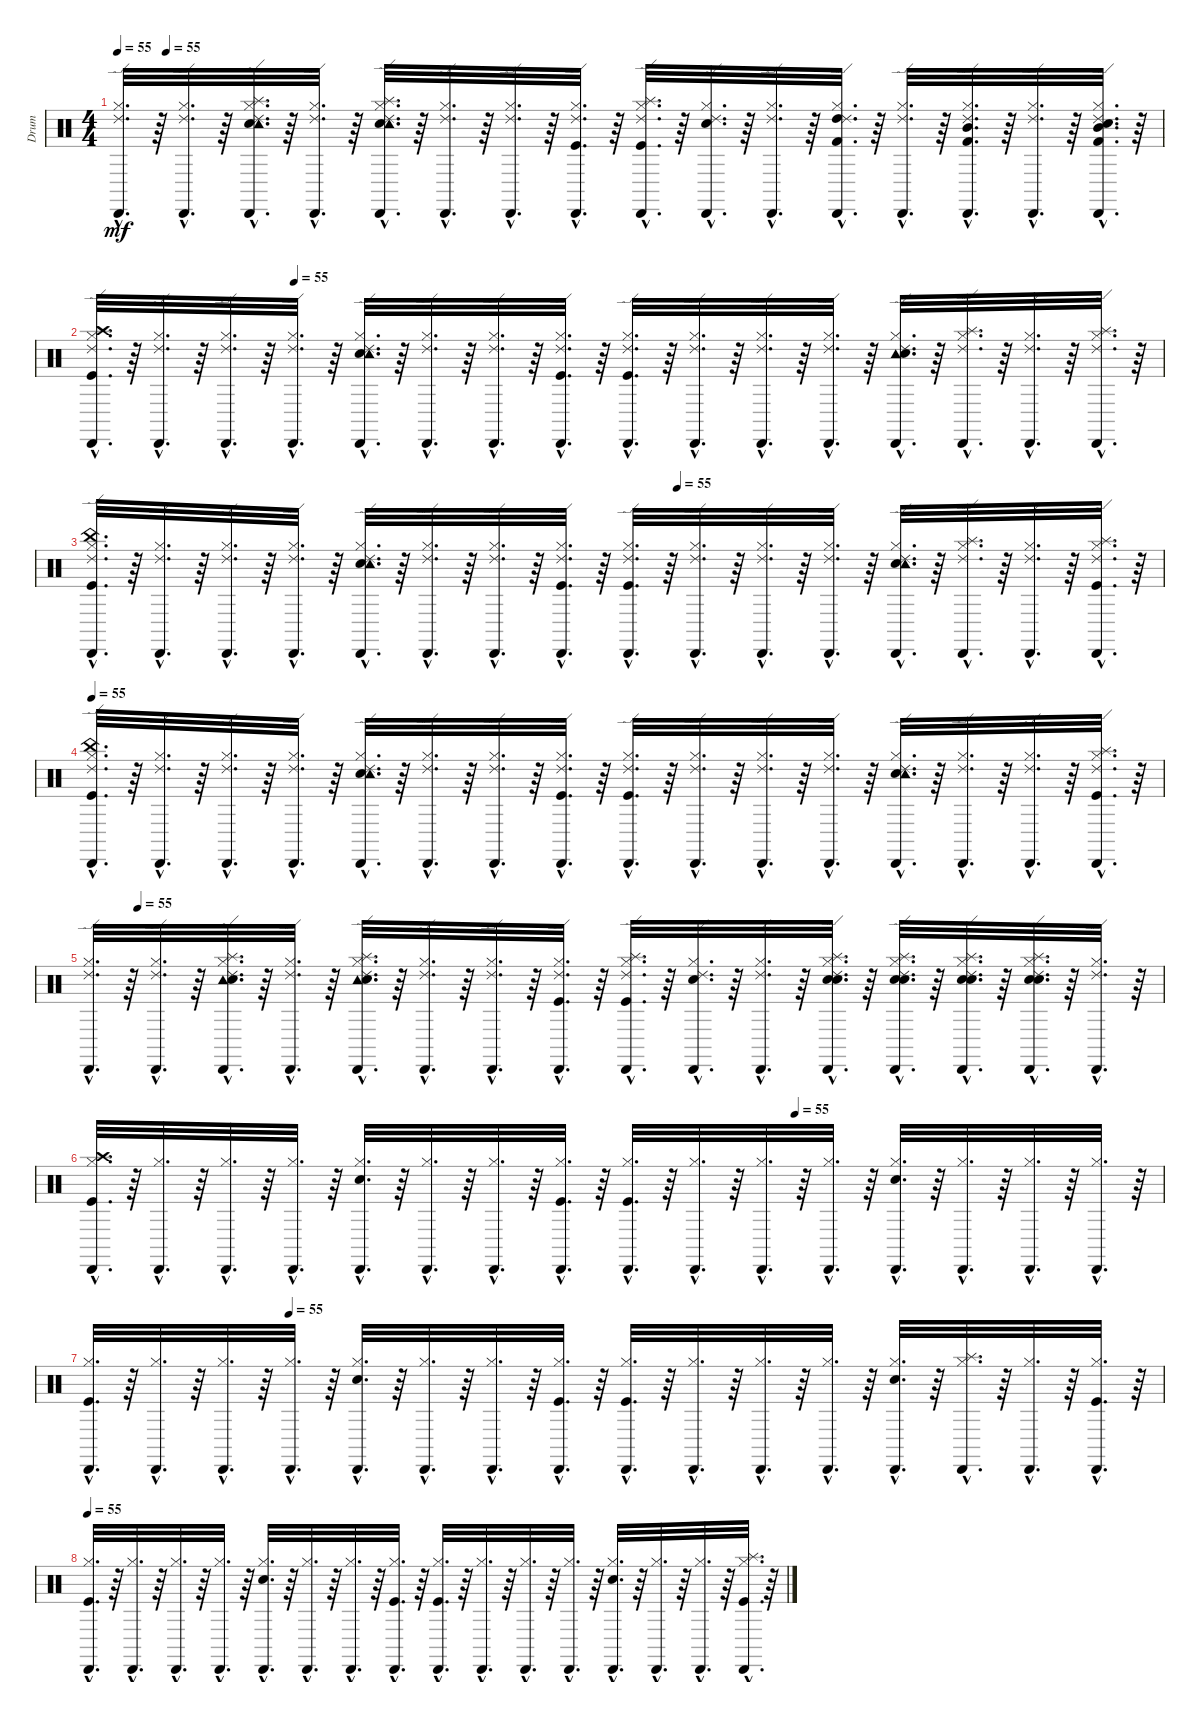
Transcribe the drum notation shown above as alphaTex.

\track ("Drum" "Drum") {instrument percussion}
\staff {score}
\articulation defaults
\ts (4 4)
\tempo 55
\tempo (55 0.046875)
\clef neutral
\ks c
("Cabasa (hit)"{hac} "Hi-Hat (closed)"{hac} "Ride (edge) 2"{hac}).32{d dy mf} r.64 ("Cabasa (hit)"{hac} "Hi-Hat (closed)"{hac} "Ride (edge) 2"{hac}).32{d} r.64 ("Cabasa (hit)"{hac} "Hi-Hat (closed)"{hac} "Snare (hit) 2"{hac} "Splash (hit)"{hac} "Ride (edge) 2"{hac} "Tambourine (hit)"{hac}).32{d} r.64 ("Cabasa (hit)"{hac} "Hi-Hat (closed)"{hac} "Ride (edge) 2"{hac}).32{d} r.64 ("Cabasa (hit)"{hac} "Hi-Hat (closed)"{hac} "Snare (hit) 2"{hac} "Splash (hit)"{hac} "Ride (edge) 2"{hac} "Tambourine (hit)"{hac}).32{d} r.64 ("Cabasa (hit)"{hac} "Hi-Hat (closed)"{hac} "Ride (edge) 2"{hac}).32{d} r.64 ("Cabasa (hit)"{hac} "Hi-Hat (closed)"{hac} "Ride (edge) 2"{hac}).32{d} r.64 ("Cabasa (hit)"{hac} "Hi-Hat (closed)"{hac} "Kick (hit)"{hac} "Ride (edge) 2"{hac}).32{d} r.64 ("Cabasa (hit)"{hac} "Hi-Hat (closed)"{hac} "Kick (hit)"{hac} "Splash (hit)"{hac} "Ride (edge) 2"{hac}).32{d} r.64 ("Cabasa (hit)"{hac} "Electric Snare (hit)"{hac} "Hi-Hat (closed)"{hac} "Ride (edge) 2"{hac}).32{d} r.64 ("Cabasa (hit)"{hac} "Hi-Hat (closed)"{hac} "Ride (edge) 2"{hac}).32{d} r.64 ("Cabasa (hit)"{hac} "High Tom (hit)"{hac} "Kick (hit) 2"{hac} "Hi-Hat (closed)"{hac} "Ride (edge) 2"{hac}).32{d} r.64 ("Cabasa (hit)"{hac} "Hi-Hat (closed)"{hac} "Ride (edge) 2"{hac}).32{d} r.64 ("Cabasa (hit)"{hac} "Kick (hit) 2"{hac} "Mid Tom (hit)"{hac} "Hi-Hat (closed)"{hac} "Ride (edge) 2"{hac}).32{d} r.64 ("Cabasa (hit)"{hac} "Hi-Hat (closed)"{hac} "Ride (edge) 2"{hac}).32{d} r.64 ("Cabasa (hit)"{hac} "Electric Snare (hit)"{hac} "Kick (hit) 2"{hac} "Mid Tom (hit)"{hac} "Hi-Hat (closed)"{hac} "Ride (edge) 2"{hac}).32{d} r.64 |
\tempo (55 0.1875)
("Cabasa (hit)"{hac} "Hi-Hat (closed)"{hac} "Kick (hit)"{hac} "Crash high (hit)"{hac} "Ride (edge) 2"{hac}).32{d} r.64 ("Cabasa (hit)"{hac} "Hi-Hat (closed)"{hac} "Ride (edge) 2"{hac}).32{d} r.64 ("Cabasa (hit)"{hac} "Hi-Hat (closed)"{hac} "Ride (edge) 2"{hac}).32{d} r.64 ("Cabasa (hit)"{hac} "Hi-Hat (closed)"{hac} "Ride (edge) 2"{hac}).32{d} r.64 ("Cabasa (hit)"{hac} "Snare (hit) 2"{hac} "Ride (edge) 2"{hac} "Tambourine (hit)"{hac} "Hi-Hat (closed)"{hac}).32{d} r.64 ("Cabasa (hit)"{hac} "Ride (edge) 2"{hac} "Hi-Hat (closed)"{hac}).32{d} r.64 ("Cabasa (hit)"{hac} "Hi-Hat (closed)"{hac} "Ride (edge) 2"{hac}).32{d} r.64 ("Cabasa (hit)"{hac} "Hi-Hat (closed)"{hac} "Kick (hit)"{hac} "Ride (edge) 2"{hac}).32{d} r.64 ("Cabasa (hit)"{hac} "Hi-Hat (closed)"{hac} "Ride (edge) 2"{hac} "Kick (hit)"{hac}).32{d} r.64 ("Cabasa (hit)"{hac} "Hi-Hat (closed)"{hac} "Ride (edge) 2"{hac}).32{d} r.64 ("Cabasa (hit)"{hac} "Hi-Hat (closed)"{hac} "Ride (edge) 2"{hac}).32{d} r.64 ("Cabasa (hit)"{hac} "Hi-Hat (closed)"{hac} "Ride (edge) 2"{hac}).32{d} r.64 ("Cabasa (hit)"{hac} "Tambourine (hit)"{hac} "Snare (hit) 2"{hac} "Ride (edge) 2"{hac} "Hi-Hat (closed)"{hac}).32{d} r.64 ("Cabasa (hit)"{hac} "Hi-Hat (closed)"{hac} "Ride (edge) 2"{hac} "Splash (hit)"{hac}).32{d} r.64 ("Cabasa (hit)"{hac} "Ride (edge) 2"{hac} "Hi-Hat (closed)"{hac}).32{d} r.64 ("Cabasa (hit)"{hac} "Hi-Hat (closed)"{hac} "Ride (edge) 2"{hac} "Splash (hit)"{hac}).32{d} r.64 |
\tempo (55 0.546875)
("Cabasa (hit)"{hac} "Hi-Hat (closed)"{hac} "Kick (hit)"{hac} "Ride (edge) 2"{hac} "China (hit)"{hac}).32{d} r.64 ("Cabasa (hit)"{hac} "Hi-Hat (closed)"{hac} "Ride (edge) 2"{hac}).32{d} r.64 ("Cabasa (hit)"{hac} "Hi-Hat (closed)"{hac} "Ride (edge) 2"{hac}).32{d} r.64 ("Cabasa (hit)"{hac} "Hi-Hat (closed)"{hac} "Ride (edge) 2"{hac}).32{d} r.64 ("Cabasa (hit)"{hac} "Hi-Hat (closed)"{hac} "Snare (hit) 2"{hac} "Tambourine (hit)"{hac} "Ride (edge) 2"{hac}).32{d} r.64 ("Cabasa (hit)"{hac} "Hi-Hat (closed)"{hac} "Ride (edge) 2"{hac}).32{d} r.64 ("Cabasa (hit)"{hac} "Hi-Hat (closed)"{hac} "Ride (edge) 2"{hac}).32{d} r.64 ("Cabasa (hit)"{hac} "Kick (hit)"{hac} "Hi-Hat (closed)"{hac} "Ride (edge) 2"{hac}).32{d} r.64 ("Cabasa (hit)"{hac} "Hi-Hat (closed)"{hac} "Kick (hit)"{hac} "Ride (edge) 2"{hac}).32{d} r.64 ("Cabasa (hit)"{hac} "Hi-Hat (closed)"{hac} "Ride (edge) 2"{hac}).32{d} r.64 ("Cabasa (hit)"{hac} "Hi-Hat (closed)"{hac} "Ride (edge) 2"{hac}).32{d} r.64 ("Cabasa (hit)"{hac} "Hi-Hat (closed)"{hac} "Ride (edge) 2"{hac}).32{d} r.64 ("Cabasa (hit)"{hac} "Hi-Hat (closed)"{hac} "Snare (hit) 2"{hac} "Tambourine (hit)"{hac} "Ride (edge) 2"{hac}).32{d} r.64 ("Cabasa (hit)"{hac} "Hi-Hat (closed)"{hac} "Ride (edge) 2"{hac} "Splash (hit)"{hac}).32{d} r.64 ("Cabasa (hit)"{hac} "Hi-Hat (closed)"{hac} "Ride (edge) 2"{hac}).32{d} r.64 ("Cabasa (hit)"{hac} "Hi-Hat (closed)"{hac} "Kick (hit)"{hac} "Ride (edge) 2"{hac} "Splash (hit)"{hac}).32{d} r.64 |
\tempo 55
("Cabasa (hit)"{hac} "Hi-Hat (closed)"{hac} "Kick (hit)"{hac} "China (hit)"{hac} "Ride (edge) 2"{hac}).32{d} r.64 ("Cabasa (hit)"{hac} "Hi-Hat (closed)"{hac} "Ride (edge) 2"{hac}).32{d} r.64 ("Cabasa (hit)"{hac} "Hi-Hat (closed)"{hac} "Ride (edge) 2"{hac}).32{d} r.64 ("Cabasa (hit)"{hac} "Hi-Hat (closed)"{hac} "Ride (edge) 2"{hac}).32{d} r.64 ("Cabasa (hit)"{hac} "Hi-Hat (closed)"{hac} "Snare (hit) 2"{hac} "Tambourine (hit)"{hac} "Ride (edge) 2"{hac}).32{d} r.64 ("Cabasa (hit)"{hac} "Hi-Hat (closed)"{hac} "Ride (edge) 2"{hac}).32{d} r.64 ("Cabasa (hit)"{hac} "Hi-Hat (closed)"{hac} "Ride (edge) 2"{hac}).32{d} r.64 ("Cabasa (hit)"{hac} "Kick (hit)"{hac} "Hi-Hat (closed)"{hac} "Ride (edge) 2"{hac}).32{d} r.64 ("Cabasa (hit)"{hac} "Hi-Hat (closed)"{hac} "Kick (hit)"{hac} "Ride (edge) 2"{hac}).32{d} r.64 ("Cabasa (hit)"{hac} "Hi-Hat (closed)"{hac} "Ride (edge) 2"{hac}).32{d} r.64 ("Cabasa (hit)"{hac} "Hi-Hat (closed)"{hac} "Ride (edge) 2"{hac}).32{d} r.64 ("Cabasa (hit)"{hac} "Hi-Hat (closed)"{hac} "Ride (edge) 2"{hac}).32{d} r.64 ("Cabasa (hit)"{hac} "Hi-Hat (closed)"{hac} "Snare (hit) 2"{hac} "Tambourine (hit)"{hac} "Ride (edge) 2"{hac}).32{d} r.64 ("Cabasa (hit)"{hac} "Hi-Hat (closed)"{hac} "Ride (edge) 2"{hac}).32{d} r.64 ("Cabasa (hit)"{hac} "Hi-Hat (closed)"{hac} "Ride (edge) 2"{hac}).32{d} r.64 ("Cabasa (hit)"{hac} "Hi-Hat (closed)"{hac} "Kick (hit)"{hac} "Splash (hit)"{hac} "Ride (edge) 2"{hac}).32{d} r.64 |
\tempo (55 0.046875)
("Cabasa (hit)"{hac} "Ride (edge) 2"{hac} "Hi-Hat (closed)"{hac}).32{d} r.64 ("Cabasa (hit)"{hac} "Ride (edge) 2"{hac} "Hi-Hat (closed)"{hac}).32{d} r.64 ("Cabasa (hit)"{hac} "Tambourine (hit)"{hac} "Ride (edge) 2"{hac} "Splash (hit)"{hac} "Snare (hit) 2"{hac} "Hi-Hat (closed)"{hac}).32{d} r.64 ("Cabasa (hit)"{hac} "Ride (edge) 2"{hac} "Hi-Hat (closed)"{hac}).32{d} r.64 ("Cabasa (hit)"{hac} "Tambourine (hit)"{hac} "Ride (edge) 2"{hac} "Splash (hit)"{hac} "Snare (hit) 2"{hac} "Hi-Hat (closed)"{hac}).32{d} r.64 ("Cabasa (hit)"{hac} "Ride (edge) 2"{hac} "Hi-Hat (closed)"{hac}).32{d} r.64 ("Cabasa (hit)"{hac} "Ride (edge) 2"{hac} "Hi-Hat (closed)"{hac}).32{d} r.64 ("Cabasa (hit)"{hac} "Ride (edge) 2"{hac} "Kick (hit)"{hac} "Hi-Hat (closed)"{hac}).32{d} r.64 ("Cabasa (hit)"{hac} "Ride (edge) 2"{hac} "Splash (hit)"{hac} "Kick (hit)"{hac} "Hi-Hat (closed)"{hac}).32{d} r.64 ("Cabasa (hit)"{hac} "Ride (edge) 2"{hac} "Hi-Hat (closed)"{hac} "Electric Snare (hit)"{hac}).32{d} r.64 ("Cabasa (hit)"{hac} "Ride (edge) 2"{hac} "Hi-Hat (closed)"{hac}).32{d} r.64 ("Cabasa (hit)"{hac} "Splash (hit)"{hac} "Snare (hit) 2"{hac} "Electric Snare (hit)"{hac} "Ride (edge) 2"{hac} "Hi-Hat (closed)"{hac}).32{d} r.64 ("Cabasa (hit)"{hac} "Splash (hit)"{hac} "Snare (hit) 2"{hac} "Electric Snare (hit)"{hac} "Ride (edge) 2"{hac} "Hi-Hat (closed)"{hac}).32{d} r.64 ("Cabasa (hit)"{hac} "Splash (hit)"{hac} "Snare (hit) 2"{hac} "Electric Snare (hit)"{hac} "Ride (edge) 2"{hac} "Hi-Hat (closed)"{hac}).32{d} r.64 ("Cabasa (hit)"{hac} "Splash (hit)"{hac} "Snare (hit) 2"{hac} "Electric Snare (hit)"{hac} "Ride (edge) 2"{hac} "Hi-Hat (closed)"{hac}).32{d} r.64 ("Cabasa (hit)"{hac} "Ride (edge) 2"{hac} "Hi-Hat (closed)"{hac}).32{d} r.64 |
\tempo (55 0.65625)
("Cabasa (hit)"{hac} "Kick (hit)"{hac} "Hi-Hat (closed)"{hac} "Crash high (hit)"{hac}).32{d} r.64 ("Cabasa (hit)"{hac} "Hi-Hat (closed)"{hac}).32{d} r.64 ("Cabasa (hit)"{hac} "Hi-Hat (closed)"{hac}).32{d} r.64 ("Cabasa (hit)"{hac} "Hi-Hat (closed)"{hac}).32{d} r.64 ("Cabasa (hit)"{hac} "Hi-Hat (closed)"{hac} "Snare (hit) 2"{hac}).32{d} r.64 ("Cabasa (hit)"{hac} "Hi-Hat (closed)"{hac}).32{d} r.64 ("Cabasa (hit)"{hac} "Hi-Hat (closed)"{hac}).32{d} r.64 ("Cabasa (hit)"{hac} "Hi-Hat (closed)"{hac} "Kick (hit)"{hac}).32{d} r.64 ("Cabasa (hit)"{hac} "Hi-Hat (closed)"{hac} "Kick (hit)"{hac}).32{d} r.64 ("Cabasa (hit)"{hac} "Hi-Hat (closed)"{hac}).32{d} r.64 ("Cabasa (hit)"{hac} "Hi-Hat (closed)"{hac}).32{d} r.64 ("Cabasa (hit)"{hac} "Hi-Hat (closed)"{hac}).32{d} r.64 ("Cabasa (hit)"{hac} "Hi-Hat (closed)"{hac} "Snare (hit) 2"{hac}).32{d} r.64 ("Cabasa (hit)"{hac} "Hi-Hat (closed)"{hac}).32{d} r.64 ("Cabasa (hit)"{hac} "Hi-Hat (closed)"{hac}).32{d} r.64 ("Cabasa (hit)"{hac} "Hi-Hat (closed)"{hac}).32{d} r.64 |
\tempo (55 0.1875)
("Cabasa (hit)"{hac} "Hi-Hat (closed)"{hac} "Kick (hit)"{hac}).32{d} r.64 ("Cabasa (hit)"{hac} "Hi-Hat (closed)"{hac}).32{d} r.64 ("Cabasa (hit)"{hac} "Hi-Hat (closed)"{hac}).32{d} r.64 ("Cabasa (hit)"{hac} "Hi-Hat (closed)"{hac}).32{d} r.64 ("Cabasa (hit)"{hac} "Hi-Hat (closed)"{hac} "Snare (hit) 2"{hac}).32{d} r.64 ("Cabasa (hit)"{hac} "Hi-Hat (closed)"{hac}).32{d} r.64 ("Cabasa (hit)"{hac} "Hi-Hat (closed)"{hac}).32{d} r.64 ("Cabasa (hit)"{hac} "Kick (hit)"{hac} "Hi-Hat (closed)"{hac}).32{d} r.64 ("Cabasa (hit)"{hac} "Hi-Hat (closed)"{hac} "Kick (hit)"{hac}).32{d} r.64 ("Cabasa (hit)"{hac} "Hi-Hat (closed)"{hac}).32{d} r.64 ("Cabasa (hit)"{hac} "Hi-Hat (closed)"{hac}).32{d} r.64 ("Cabasa (hit)"{hac} "Hi-Hat (closed)"{hac}).32{d} r.64 ("Cabasa (hit)"{hac} "Hi-Hat (closed)"{hac} "Snare (hit) 2"{hac}).32{d} r.64 ("Cabasa (hit)"{hac} "Splash (hit)"{hac} "Hi-Hat (closed)"{hac}).32{d} r.64 ("Cabasa (hit)"{hac} "Hi-Hat (closed)"{hac}).32{d} r.64 ("Cabasa (hit)"{hac} "Hi-Hat (closed)"{hac} "Kick (hit)"{hac}).32{d} r.64 |
\tempo 55
("Cabasa (hit)"{hac} "Hi-Hat (closed)"{hac} "Kick (hit)"{hac}).32{d} r.64 ("Cabasa (hit)"{hac} "Hi-Hat (closed)"{hac}).32{d} r.64 ("Cabasa (hit)"{hac} "Hi-Hat (closed)"{hac}).32{d} r.64 ("Cabasa (hit)"{hac} "Hi-Hat (closed)"{hac}).32{d} r.64 ("Cabasa (hit)"{hac} "Hi-Hat (closed)"{hac} "Snare (hit) 2"{hac}).32{d} r.64 ("Cabasa (hit)"{hac} "Hi-Hat (closed)"{hac}).32{d} r.64 ("Cabasa (hit)"{hac} "Hi-Hat (closed)"{hac}).32{d} r.64 ("Cabasa (hit)"{hac} "Kick (hit)"{hac} "Hi-Hat (closed)"{hac}).32{d} r.64 ("Cabasa (hit)"{hac} "Hi-Hat (closed)"{hac} "Kick (hit)"{hac}).32{d} r.64 ("Cabasa (hit)"{hac} "Hi-Hat (closed)"{hac}).32{d} r.64 ("Cabasa (hit)"{hac} "Hi-Hat (closed)"{hac}).32{d} r.64 ("Cabasa (hit)"{hac} "Hi-Hat (closed)"{hac}).32{d} r.64 ("Cabasa (hit)"{hac} "Snare (hit) 2"{hac} "Hi-Hat (closed)"{hac}).32{d} r.64 ("Cabasa (hit)"{hac} "Hi-Hat (closed)"{hac}).32{d} r.64 ("Cabasa (hit)"{hac} "Hi-Hat (closed)"{hac}).32{d} r.64 ("Cabasa (hit)"{hac} "Splash (hit)"{hac} "Kick (hit)"{hac} "Hi-Hat (closed)"{hac}).32{d} r.64
